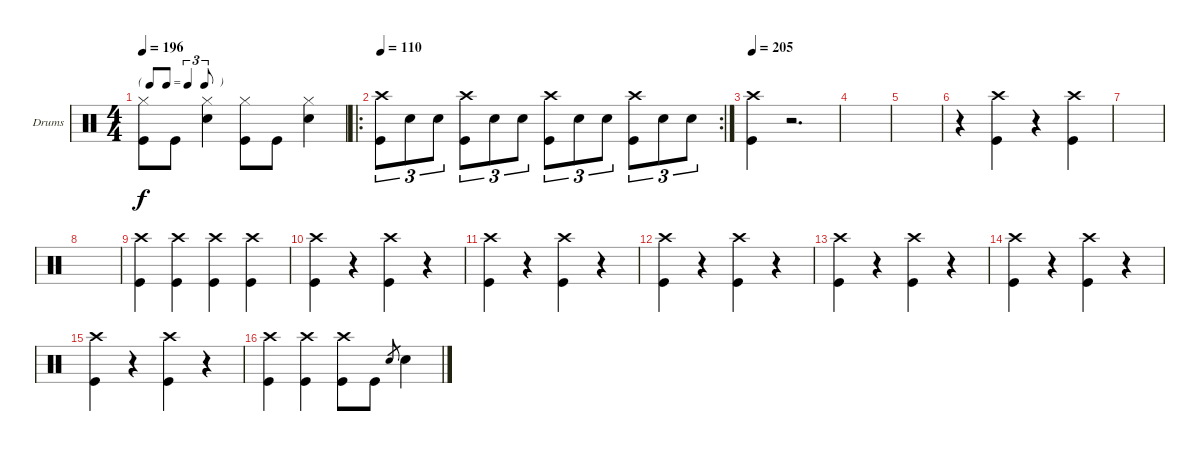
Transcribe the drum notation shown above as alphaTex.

\bracketExtendMode groupsimilarinstruments
\firstSystemTrackNameOrientation horizontal
\otherSystemsTrackNameOrientation horizontal
\track ("Drums" "Drums") {instrument percussion}
\staff {score}
\articulation defaults
\ts (4 4)
\tf triplet8th
\tempo 196
\clef neutral
\ks c
("Hi-Hat (closed)" "Kick (hit)").8{dy f} "Kick (hit)".8 ("Snare (hit) 2" "Hi-Hat (closed)").4 ("Hi-Hat (closed)" "Kick (hit)").8 "Kick (hit)".8 ("Hi-Hat (closed)" "Snare (hit) 2").4 |
\ro
\rc 2
\tempo 110
("Kick (hit)" "Crash high (hit)").8{tu (3 2)} "Snare (hit) 2".8{tu (3 2)} "Snare (hit) 2".8{tu (3 2)} ("Kick (hit)" "Crash high (hit)").8{tu (3 2)} "Snare (hit) 2".8{tu (3 2)} "Snare (hit) 2".8{tu (3 2)} ("Kick (hit)" "Crash high (hit)").8{tu (3 2)} "Snare (hit) 2".8{tu (3 2)} "Snare (hit) 2".8{tu (3 2)} ("Kick (hit)" "Crash high (hit)").8{tu (3 2)} "Snare (hit) 2".8{tu (3 2)} "Snare (hit) 2".8{tu (3 2)} |
\tempo 205
("Kick (hit)" "Crash high (hit)").4 r.2{d} |
|
|
r.4 ("Kick (hit)" "Crash high (hit)").4 r.4 ("Kick (hit)" "Crash high (hit)").4 |
|
|
("Kick (hit)" "Crash high (hit)").4 ("Kick (hit)" "Crash high (hit)").4 ("Kick (hit)" "Crash high (hit)").4 ("Kick (hit)" "Crash high (hit)").4 |
("Crash high (hit)" "Kick (hit)").4 r.4 ("Crash high (hit)" "Kick (hit)").4 r.4 |
("Kick (hit)" "Crash high (hit)").4 r.4 ("Kick (hit)" "Crash high (hit)").4 r.4 |
("Kick (hit)" "Crash high (hit)").4 r.4 ("Kick (hit)" "Crash high (hit)").4 r.4 |
("Kick (hit)" "Crash high (hit)").4 r.4 ("Kick (hit)" "Crash high (hit)").4 r.4 |
("Kick (hit)" "Crash high (hit)").4 r.4 ("Kick (hit)" "Crash high (hit)").4 r.4 |
("Kick (hit)" "Crash high (hit)").4 r.4 ("Kick (hit)" "Crash high (hit)").4 r.4 |
("Kick (hit)" "Crash high (hit)").4 ("Kick (hit)" "Crash high (hit)").4 ("Kick (hit)" "Crash high (hit)").8 "Kick (hit)".8 "Snare (hit) 2".8{gr} "Snare (hit) 2".4
